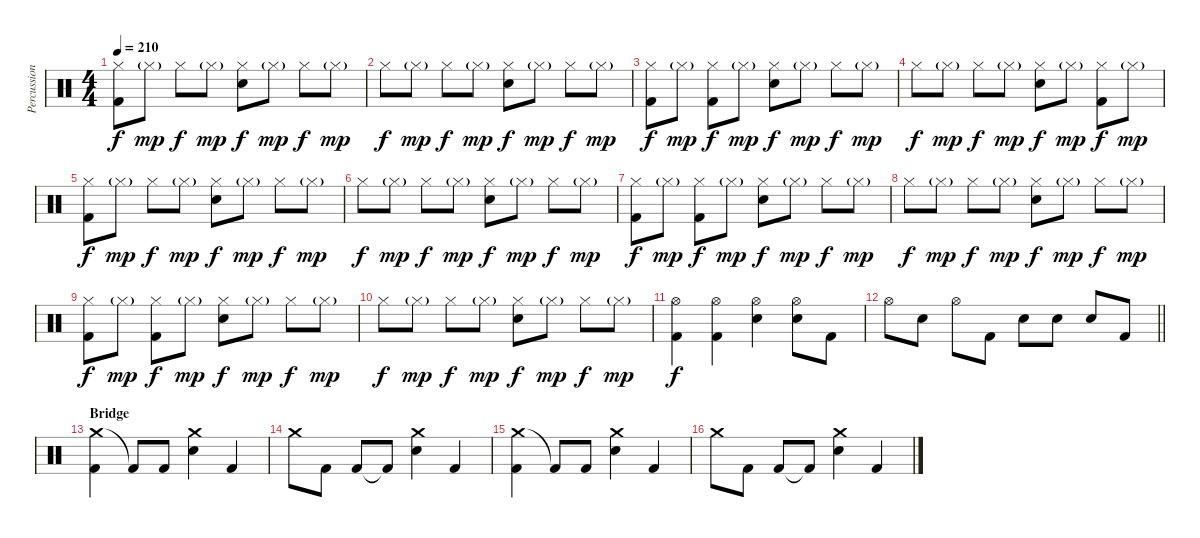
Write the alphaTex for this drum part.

\track ("Percussion" "Percussion") {instrument percussion}
\staff {score}
\articulation defaults
\ts (4 4)
\tempo 210
\clef neutral
\ks c
("Hi-Hat (closed)" "Kick (hit) 2").8{dy f} "Hi-Hat (closed)"{g}.8{dy mp} "Hi-Hat (closed)".8{dy f} "Hi-Hat (closed)"{g}.8{dy mp} ("Hi-Hat (closed)" "Electric Snare (hit)").8{dy f} "Hi-Hat (closed)"{g}.8{dy mp} "Hi-Hat (closed)".8{dy f} "Hi-Hat (closed)"{g}.8{dy mp} |
"Hi-Hat (closed)".8{dy f} "Hi-Hat (closed)"{g}.8{dy mp} "Hi-Hat (closed)".8{dy f} "Hi-Hat (closed)"{g}.8{dy mp} ("Hi-Hat (closed)" "Electric Snare (hit)").8{dy f} "Hi-Hat (closed)"{g}.8{dy mp} "Hi-Hat (closed)".8{dy f} "Hi-Hat (closed)"{g}.8{dy mp} |
("Hi-Hat (closed)" "Kick (hit) 2").8{dy f} "Hi-Hat (closed)"{g}.8{dy mp} ("Hi-Hat (closed)" "Kick (hit) 2").8{dy f} "Hi-Hat (closed)"{g}.8{dy mp} ("Hi-Hat (closed)" "Electric Snare (hit)").8{dy f} "Hi-Hat (closed)"{g}.8{dy mp} "Hi-Hat (closed)".8{dy f} "Hi-Hat (closed)"{g}.8{dy mp} |
"Hi-Hat (closed)".8{dy f} "Hi-Hat (closed)"{g}.8{dy mp} "Hi-Hat (closed)".8{dy f} "Hi-Hat (closed)"{g}.8{dy mp} ("Hi-Hat (closed)" "Electric Snare (hit)").8{dy f} "Hi-Hat (closed)"{g}.8{dy mp} ("Hi-Hat (closed)" "Kick (hit) 2").8{dy f} "Hi-Hat (closed)"{g}.8{dy mp} |
("Hi-Hat (closed)" "Kick (hit) 2").8{dy f} "Hi-Hat (closed)"{g}.8{dy mp} "Hi-Hat (closed)".8{dy f} "Hi-Hat (closed)"{g}.8{dy mp} ("Hi-Hat (closed)" "Electric Snare (hit)").8{dy f} "Hi-Hat (closed)"{g}.8{dy mp} "Hi-Hat (closed)".8{dy f} "Hi-Hat (closed)"{g}.8{dy mp} |
"Hi-Hat (closed)".8{dy f} "Hi-Hat (closed)"{g}.8{dy mp} "Hi-Hat (closed)".8{dy f} "Hi-Hat (closed)"{g}.8{dy mp} ("Hi-Hat (closed)" "Electric Snare (hit)").8{dy f} "Hi-Hat (closed)"{g}.8{dy mp} "Hi-Hat (closed)".8{dy f} "Hi-Hat (closed)"{g}.8{dy mp} |
("Hi-Hat (closed)" "Kick (hit) 2").8{dy f} "Hi-Hat (closed)"{g}.8{dy mp} ("Hi-Hat (closed)" "Kick (hit) 2").8{dy f} "Hi-Hat (closed)"{g}.8{dy mp} ("Hi-Hat (closed)" "Electric Snare (hit)").8{dy f} "Hi-Hat (closed)"{g}.8{dy mp} "Hi-Hat (closed)".8{dy f} "Hi-Hat (closed)"{g}.8{dy mp} |
"Hi-Hat (closed)".8{dy f} "Hi-Hat (closed)"{g}.8{dy mp} "Hi-Hat (closed)".8{dy f} "Hi-Hat (closed)"{g}.8{dy mp} ("Hi-Hat (closed)" "Electric Snare (hit)").8{dy f} "Hi-Hat (closed)"{g}.8{dy mp} "Hi-Hat (closed)".8{dy f} "Hi-Hat (closed)"{g}.8{dy mp} |
("Hi-Hat (closed)" "Kick (hit) 2").8{dy f} "Hi-Hat (closed)"{g}.8{dy mp} ("Hi-Hat (closed)" "Kick (hit) 2").8{dy f} "Hi-Hat (closed)"{g}.8{dy mp} ("Hi-Hat (closed)" "Electric Snare (hit)").8{dy f} "Hi-Hat (closed)"{g}.8{dy mp} "Hi-Hat (closed)".8{dy f} "Hi-Hat (closed)"{g}.8{dy mp} |
"Hi-Hat (closed)".8{dy f} "Hi-Hat (closed)"{g}.8{dy mp} "Hi-Hat (closed)".8{dy f} "Hi-Hat (closed)"{g}.8{dy mp} ("Hi-Hat (closed)" "Electric Snare (hit)").8{dy f} "Hi-Hat (closed)"{g}.8{dy mp} "Hi-Hat (closed)".8{dy f} "Hi-Hat (closed)"{g}.8{dy mp} |
("Hi-Hat (open)" "Kick (hit) 2").4{dy f} ("Hi-Hat (open)" "Kick (hit) 2").4 ("Hi-Hat (open)" "Electric Snare (hit)").4 ("Hi-Hat (open)" "Electric Snare (hit)").8 "Kick (hit) 2".8 |
\barLineRight lightlight "Hi-Hat (open)".8 "Electric Snare (hit)".8 "Hi-Hat (open)".8 "Kick (hit) 2".8 "Electric Snare (hit)".8 "Electric Snare (hit)".8 "Electric Snare (hit)".8 "Kick (hit) 2".8
|
\section ("" "Bridge")
("Crash medium (hit)" "Kick (hit) 2").4 "Kick (hit) 2"{t}.8 "Kick (hit) 2".8 ("Crash medium (hit)" "Electric Snare (hit)").4 "Kick (hit) 2".4 |
"Crash medium (hit)".8 "Kick (hit) 2".8 "Kick (hit) 2".8 "Kick (hit) 2"{t}.8 ("Crash medium (hit)" "Electric Snare (hit)").4 "Kick (hit) 2".4 |
("Crash medium (hit)" "Kick (hit) 2").4 "Kick (hit) 2"{t}.8 "Kick (hit) 2".8 ("Crash medium (hit)" "Electric Snare (hit)").4 "Kick (hit) 2".4 |
"Crash medium (hit)".8 "Kick (hit) 2".8 "Kick (hit) 2".8 "Kick (hit) 2"{t}.8 ("Crash medium (hit)" "Electric Snare (hit)").4 "Kick (hit) 2".4
